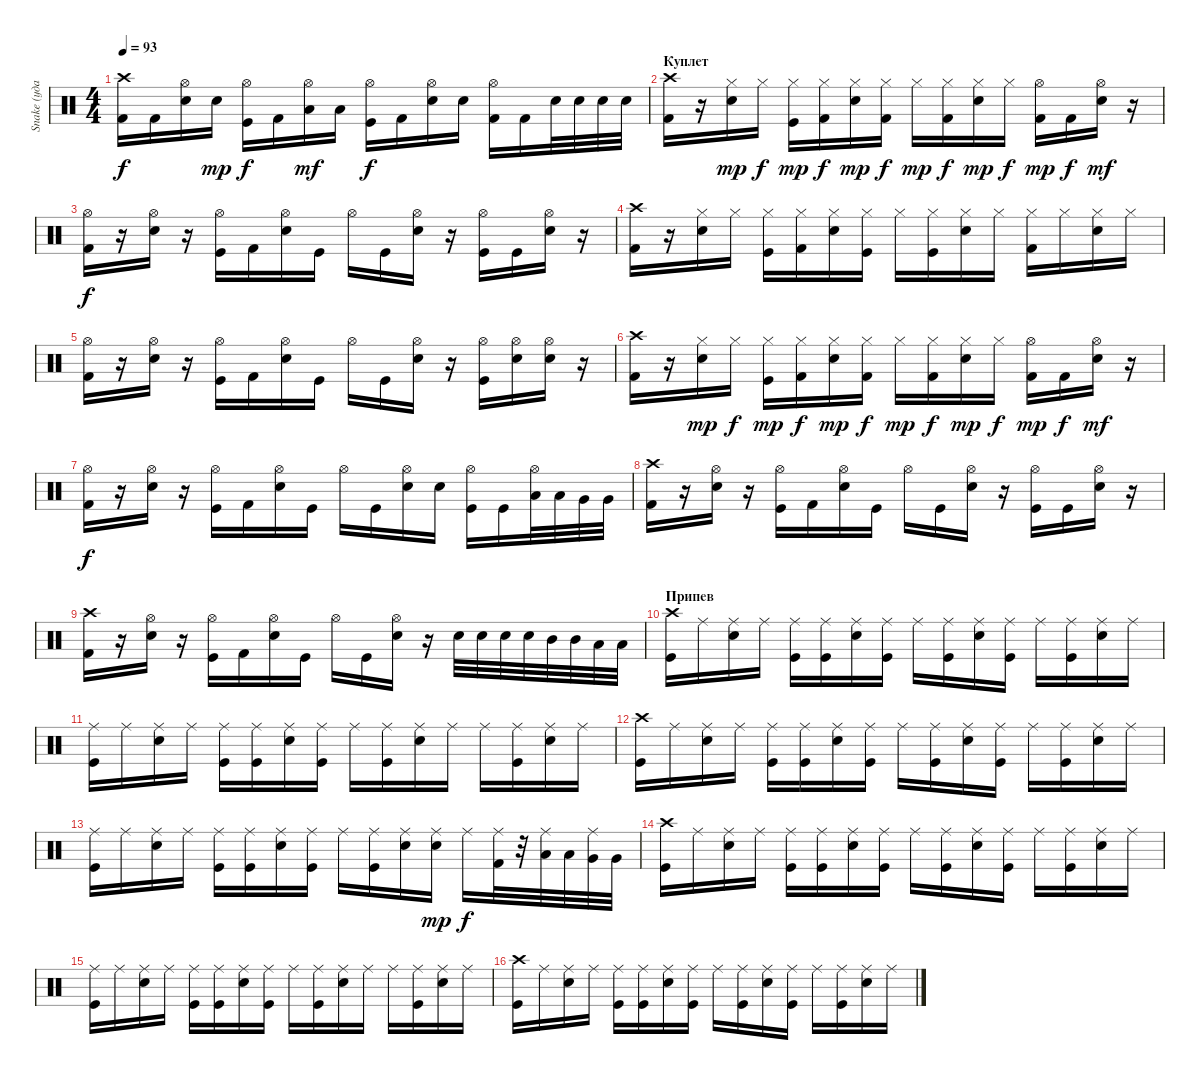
\track ("Snake (ударные)" "Snake (уда") {instrument percussion}
\staff {score}
\articulation defaults
\ts (4 4)
\tempo 93
\clef neutral
\ks c
("Crash high (hit)" "Kick (hit) 2").16{dy f} "Kick (hit) 2".16 ("Hi-Hat (open)" "Snare (hit) 2").16 "Snare (hit) 2".16{dy mp} ("Hi-Hat (open)" "Kick (hit)").16{dy f} "Kick (hit) 2".16 ("Hi-Hat (open)" "Low Tom (hit)").16{dy mf} "Low Tom (hit)".16 ("Hi-Hat (open)" "Kick (hit)").16{dy f} "Kick (hit) 2".16 ("Hi-Hat (open)" "Snare (hit) 2").16 "Snare (hit) 2".16 ("Hi-Hat (open)" "Kick (hit) 2").16 "Kick (hit) 2".16 "Snare (hit) 2".32 "Snare (hit) 2".32 "Snare (hit) 2".32 "Snare (hit) 2".32 |
\section ("" "Куплет")
("Crash high (hit)" "Kick (hit) 2").16 r.16 ("Hi-Hat (closed)" "Snare (hit) 2").16{dy mp} "Hi-Hat (closed)".16{dy f} ("Hi-Hat (closed)" "Kick (hit)").16{dy mp} ("Hi-Hat (closed)" "Kick (hit) 2").16{dy f} ("Hi-Hat (closed)" "Snare (hit) 2").16{dy mp} ("Hi-Hat (closed)" "Kick (hit) 2").16{dy f} "Hi-Hat (closed)".16{dy mp} ("Hi-Hat (closed)" "Kick (hit) 2").16{dy f} ("Hi-Hat (closed)" "Snare (hit) 2").16{dy mp} "Hi-Hat (closed)".16{dy f} ("Hi-Hat (open)" "Kick (hit) 2").16{dy mp} "Kick (hit) 2".16{dy f} ("Hi-Hat (open)" "Snare (hit) 2").16{dy mf} r.16 |
("Hi-Hat (open)" "Kick (hit) 2").16{dy f} r.16 ("Hi-Hat (open)" "Snare (hit) 2").16 r.16 ("Hi-Hat (open)" "Kick (hit)").16 "Kick (hit) 2".16 ("Hi-Hat (open)" "Snare (hit) 2").16 "Kick (hit)".16 "Hi-Hat (open)".16 "Kick (hit)".16 ("Hi-Hat (open)" "Snare (hit) 2").16 r.16 ("Hi-Hat (open)" "Kick (hit)").16 "Kick (hit)".16 ("Hi-Hat (open)" "Snare (hit) 2").16 r.16 |
("Crash high (hit)" "Kick (hit) 2").16 r.16 ("Hi-Hat (closed)" "Snare (hit) 2").16 "Hi-Hat (closed)".16 ("Hi-Hat (closed)" "Kick (hit)").16 ("Hi-Hat (closed)" "Kick (hit) 2").16 ("Hi-Hat (closed)" "Snare (hit) 2").16 ("Hi-Hat (closed)" "Kick (hit)").16 "Hi-Hat (closed)".16 ("Hi-Hat (closed)" "Kick (hit)").16 ("Hi-Hat (closed)" "Snare (hit) 2").16 "Hi-Hat (closed)".16 ("Hi-Hat (closed)" "Kick (hit) 2").16 "Hi-Hat (closed)".16 ("Hi-Hat (closed)" "Snare (hit) 2").16 "Hi-Hat (closed)".16 |
("Hi-Hat (open)" "Kick (hit) 2").16 r.16 ("Hi-Hat (open)" "Snare (hit) 2").16 r.16 ("Hi-Hat (open)" "Kick (hit)").16 "Kick (hit) 2".16 ("Hi-Hat (open)" "Snare (hit) 2").16 "Kick (hit)".16 "Hi-Hat (open)".16 "Kick (hit)".16 ("Hi-Hat (open)" "Snare (hit) 2").16 r.16 ("Hi-Hat (open)" "Kick (hit)").16 ("Hi-Hat (open)" "Snare (hit) 2").16 ("Hi-Hat (open)" "Snare (hit) 2").16 r.16 |
("Crash high (hit)" "Kick (hit) 2").16 r.16 ("Hi-Hat (closed)" "Snare (hit) 2").16{dy mp} "Hi-Hat (closed)".16{dy f} ("Hi-Hat (closed)" "Kick (hit)").16{dy mp} ("Hi-Hat (closed)" "Kick (hit) 2").16{dy f} ("Hi-Hat (closed)" "Snare (hit) 2").16{dy mp} ("Hi-Hat (closed)" "Kick (hit) 2").16{dy f} "Hi-Hat (closed)".16{dy mp} ("Hi-Hat (closed)" "Kick (hit) 2").16{dy f} ("Hi-Hat (closed)" "Snare (hit) 2").16{dy mp} "Hi-Hat (closed)".16{dy f} ("Hi-Hat (open)" "Kick (hit) 2").16{dy mp} "Kick (hit) 2".16{dy f} ("Hi-Hat (open)" "Snare (hit) 2").16{dy mf} r.16 |
("Hi-Hat (open)" "Kick (hit) 2").16{dy f} r.16 ("Hi-Hat (open)" "Snare (hit) 2").16 r.16 ("Hi-Hat (open)" "Kick (hit)").16 "Kick (hit) 2".16 ("Hi-Hat (open)" "Snare (hit) 2").16 "Kick (hit)".16 "Hi-Hat (open)".16 "Kick (hit)".16 ("Hi-Hat (open)" "Snare (hit) 2").16 "Snare (hit) 2".16 ("Hi-Hat (open)" "Kick (hit)").16 "Kick (hit)".16 ("Hi-Hat (open)" "Low Tom (hit)").32 "Low Tom (hit)".32 "Very Low Tom (hit)".32 "Very Low Tom (hit)".32 |
("Crash high (hit)" "Kick (hit) 2").16 r.16 ("Hi-Hat (open)" "Snare (hit) 2").16 r.16 ("Hi-Hat (open)" "Kick (hit)").16 "Kick (hit) 2".16 ("Hi-Hat (open)" "Snare (hit) 2").16 "Kick (hit)".16 "Hi-Hat (open)".16 "Kick (hit)".16 ("Hi-Hat (open)" "Snare (hit) 2").16 r.16 ("Hi-Hat (open)" "Kick (hit)").16 "Kick (hit)".16 ("Hi-Hat (open)" "Snare (hit) 2").16 r.16 |
("Crash high (hit)" "Kick (hit) 2").16 r.16 ("Hi-Hat (open)" "Snare (hit) 2").16 r.16 ("Hi-Hat (open)" "Kick (hit)").16 "Kick (hit) 2".16 ("Hi-Hat (open)" "Snare (hit) 2").16 "Kick (hit)".16 "Hi-Hat (open)".16 "Kick (hit)".16 ("Hi-Hat (open)" "Snare (hit) 2").16 r.16 "Snare (hit) 2".32 "Snare (hit) 2".32 "Snare (hit) 2".32 "Snare (hit) 2".32 "Mid Tom (hit)".32 "Mid Tom (hit)".32 "Low Tom (hit)".32 "Low Tom (hit)".32 |
\section ("" "Припев")
("Crash high (hit)" "Kick (hit)").16 "Ride (middle)".16 ("Ride (middle)" "Snare (hit) 2").16 "Ride (middle)".16 ("Ride (middle)" "Kick (hit)").16 ("Ride (middle)" "Kick (hit)").16 ("Ride (middle)" "Snare (hit) 2").16 ("Ride (middle)" "Kick (hit)").16 "Ride (middle)".16 ("Ride (middle)" "Kick (hit)").16 ("Ride (middle)" "Snare (hit) 2").16 ("Ride (middle)" "Kick (hit)").16 "Ride (middle)".16 ("Ride (middle)" "Kick (hit)").16 ("Ride (middle)" "Snare (hit) 2").16 "Ride (middle)".16 |
("Ride (middle)" "Kick (hit)").16 "Ride (middle)".16 ("Ride (middle)" "Snare (hit) 2").16 "Ride (middle)".16 ("Ride (middle)" "Kick (hit)").16 ("Ride (middle)" "Kick (hit)").16 ("Ride (middle)" "Snare (hit) 2").16 ("Ride (middle)" "Kick (hit)").16 "Ride (middle)".16 ("Ride (middle)" "Kick (hit)").16 ("Ride (middle)" "Snare (hit) 2").16 "Ride (middle)".16 "Ride (middle)".16 ("Ride (middle)" "Kick (hit)").16 ("Ride (middle)" "Snare (hit) 2").16 "Ride (middle)".16 |
("Crash high (hit)" "Kick (hit)").16 "Ride (middle)".16 ("Ride (middle)" "Snare (hit) 2").16 "Ride (middle)".16 ("Ride (middle)" "Kick (hit)").16 ("Ride (middle)" "Kick (hit)").16 ("Ride (middle)" "Snare (hit) 2").16 ("Ride (middle)" "Kick (hit)").16 "Ride (middle)".16 ("Ride (middle)" "Kick (hit)").16 ("Ride (middle)" "Snare (hit) 2").16 ("Ride (middle)" "Kick (hit)").16 "Ride (middle)".16 ("Ride (middle)" "Kick (hit)").16 ("Ride (middle)" "Snare (hit) 2").16 "Ride (middle)".16 |
("Ride (middle)" "Kick (hit)").16 "Ride (middle)".16 ("Ride (middle)" "Snare (hit) 2").16 "Ride (middle)".16 ("Ride (middle)" "Kick (hit)").16 ("Ride (middle)" "Kick (hit)").16 ("Ride (middle)" "Snare (hit) 2").16 ("Ride (middle)" "Kick (hit)").16 "Ride (middle)".16 ("Ride (middle)" "Kick (hit)").16 ("Ride (middle)" "Snare (hit) 2").16 ("Ride (middle)" "Snare (hit) 2").16{dy mp} "Ride (middle)".16{dy f} ("Ride (middle)" "Kick (hit) 2").32 r.32 ("Ride (middle)" "Low Tom (hit)").32 "Low Tom (hit)".32 ("Ride (middle)" "Very Low Tom (hit)").32 "Very Low Tom (hit)".32 |
("Crash high (hit)" "Kick (hit)").16 "Ride (middle)".16 ("Ride (middle)" "Snare (hit) 2").16 "Ride (middle)".16 ("Ride (middle)" "Kick (hit)").16 ("Ride (middle)" "Kick (hit)").16 ("Ride (middle)" "Snare (hit) 2").16 ("Ride (middle)" "Kick (hit)").16 "Ride (middle)".16 ("Ride (middle)" "Kick (hit)").16 ("Ride (middle)" "Snare (hit) 2").16 ("Ride (middle)" "Kick (hit)").16 "Ride (middle)".16 ("Ride (middle)" "Kick (hit)").16 ("Ride (middle)" "Snare (hit) 2").16 "Ride (middle)".16 |
("Ride (middle)" "Kick (hit)").16 "Ride (middle)".16 ("Ride (middle)" "Snare (hit) 2").16 "Ride (middle)".16 ("Ride (middle)" "Kick (hit)").16 ("Ride (middle)" "Kick (hit)").16 ("Ride (middle)" "Snare (hit) 2").16 ("Ride (middle)" "Kick (hit)").16 "Ride (middle)".16 ("Ride (middle)" "Kick (hit)").16 ("Ride (middle)" "Snare (hit) 2").16 "Ride (middle)".16 "Ride (middle)".16 ("Ride (middle)" "Kick (hit)").16 ("Ride (middle)" "Snare (hit) 2").16 "Ride (middle)".16 |
("Crash high (hit)" "Kick (hit)").16 "Ride (middle)".16 ("Ride (middle)" "Snare (hit) 2").16 "Ride (middle)".16 ("Ride (middle)" "Kick (hit)").16 ("Ride (middle)" "Kick (hit)").16 ("Ride (middle)" "Snare (hit) 2").16 ("Ride (middle)" "Kick (hit)").16 "Ride (middle)".16 ("Ride (middle)" "Kick (hit)").16 ("Ride (middle)" "Snare (hit) 2").16 ("Ride (middle)" "Kick (hit)").16 "Ride (middle)".16 ("Ride (middle)" "Kick (hit)").16 ("Ride (middle)" "Snare (hit) 2").16 "Ride (middle)".16
